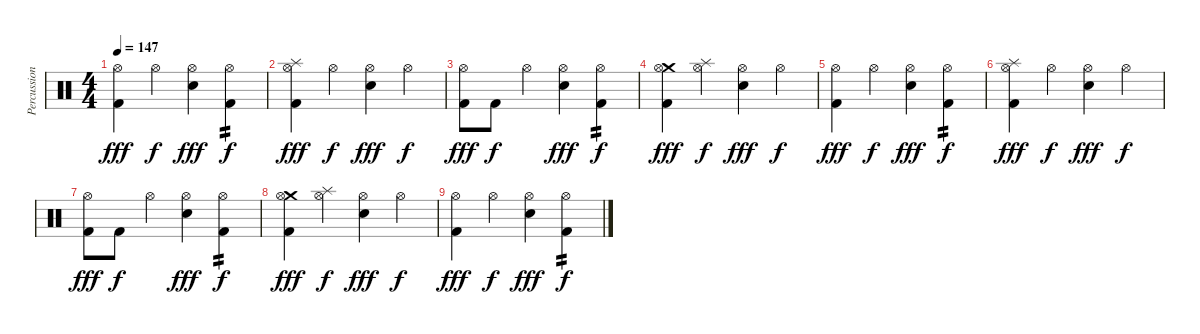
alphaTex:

\track ("Percussion" "Percussion") {instrument percussion}
\staff
\articulation defaults
\ts (4 4)
\tempo 147
\clef neutral
\ks c
("Hi-Hat (open)" "Kick (hit) 2").4{dy fff} "Hi-Hat (open)".4{dy f} ("Hi-Hat (open)" "Electric Snare (hit)").4{dy fff} ("Hi-Hat (open)" "Kick (hit) 2").4{tp 2 dy f} |
("Splash (hit)" "Hi-Hat (open)" "Kick (hit) 2").4{dy fff} "Hi-Hat (open)".4{dy f} ("Hi-Hat (open)" "Electric Snare (hit)").4{dy fff} "Hi-Hat (open)".4{dy f} |
("Hi-Hat (open)" "Kick (hit) 2").8{dy fff} "Kick (hit) 2".8{dy f} "Hi-Hat (open)".4 ("Hi-Hat (open)" "Electric Snare (hit)").4{dy fff} ("Hi-Hat (open)" "Kick (hit) 2").4{tp 2 dy f} |
("Crash medium (hit)" "Hi-Hat (open)" "Kick (hit) 2").4{dy fff} ("Splash (hit)" "Hi-Hat (open)").4{dy f} ("Hi-Hat (open)" "Electric Snare (hit)").4{dy fff} "Hi-Hat (open)".4{dy f} |
("Hi-Hat (open)" "Kick (hit) 2").4{dy fff} "Hi-Hat (open)".4{dy f} ("Hi-Hat (open)" "Electric Snare (hit)").4{dy fff} ("Hi-Hat (open)" "Kick (hit) 2").4{tp 2 dy f} |
("Splash (hit)" "Hi-Hat (open)" "Kick (hit) 2").4{dy fff} "Hi-Hat (open)".4{dy f} ("Hi-Hat (open)" "Electric Snare (hit)").4{dy fff} "Hi-Hat (open)".4{dy f} |
("Hi-Hat (open)" "Kick (hit) 2").8{dy fff} "Kick (hit) 2".8{dy f} "Hi-Hat (open)".4 ("Hi-Hat (open)" "Electric Snare (hit)").4{dy fff} ("Hi-Hat (open)" "Kick (hit) 2").4{tp 2 dy f} |
("Crash medium (hit)" "Hi-Hat (open)" "Kick (hit) 2").4{dy fff} ("Splash (hit)" "Hi-Hat (open)").4{dy f} ("Hi-Hat (open)" "Electric Snare (hit)").4{dy fff} "Hi-Hat (open)".4{dy f} |
("Hi-Hat (open)" "Kick (hit) 2").4{dy fff} "Hi-Hat (open)".4{dy f} ("Hi-Hat (open)" "Electric Snare (hit)").4{dy fff} ("Hi-Hat (open)" "Kick (hit) 2").4{tp 2 dy f}
